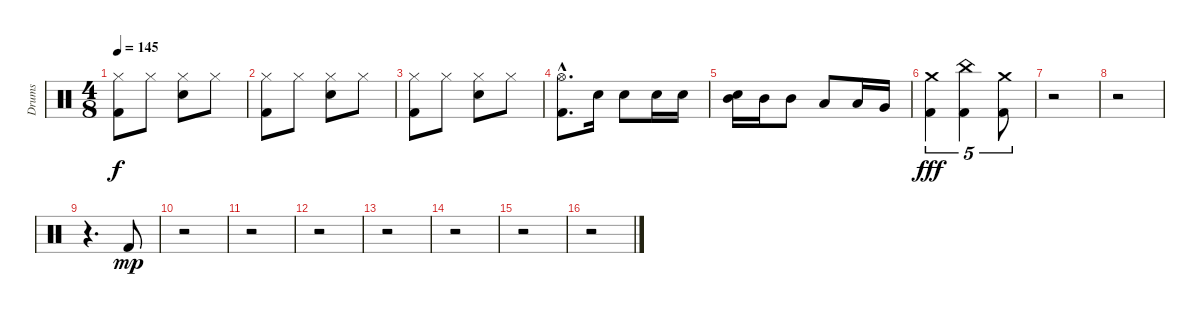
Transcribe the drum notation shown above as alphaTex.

\track ("Drums" "Drums") {instrument percussion}
\staff {score}
\articulation defaults
\ts (4 8)
\tempo 145
\clef neutral
\ks c
("Hi-Hat (closed)" "Kick (hit) 2").8{dy f} "Hi-Hat (closed)".8 ("Hi-Hat (closed)" "Snare (hit) 2").8 "Hi-Hat (closed)".8 |
("Hi-Hat (closed)" "Kick (hit) 2").8 "Hi-Hat (closed)".8 ("Hi-Hat (closed)" "Snare (hit) 2").8 "Hi-Hat (closed)".8 |
("Hi-Hat (closed)" "Kick (hit) 2").8 "Hi-Hat (closed)".8 ("Hi-Hat (closed)" "Snare (hit) 2").8 "Hi-Hat (closed)".8 |
("Hi-Hat (open)"{hac} "Kick (hit) 2"{hac}).8{d} "Snare (hit) 2".16 "Snare (hit) 2".8 "Snare (hit) 2".16 "Snare (hit) 2".16 |
("Mid Tom (hit)" "Snare (hit) 2").16 "Mid Tom (hit)".16 "Mid Tom (hit)".8 "Low Tom (hit)".8 "Low Tom (hit)".16 "Very Low Tom (hit)".16 |
("Crash medium (hit)" "Kick (hit) 2").4{tu (5 4) dy fff} ("China (hit)" "Kick (hit) 2").4{tu (5 4)} ("Crash medium (hit)" "Kick (hit) 2").8{tu (5 4)} |
r.2 |
r.2 |
r.4{d} "Kick (hit) 2".8{dy mp} |
r.2 |
r.2 |
r.2 |
r.2 |
r.2 |
r.2 |
r.2
